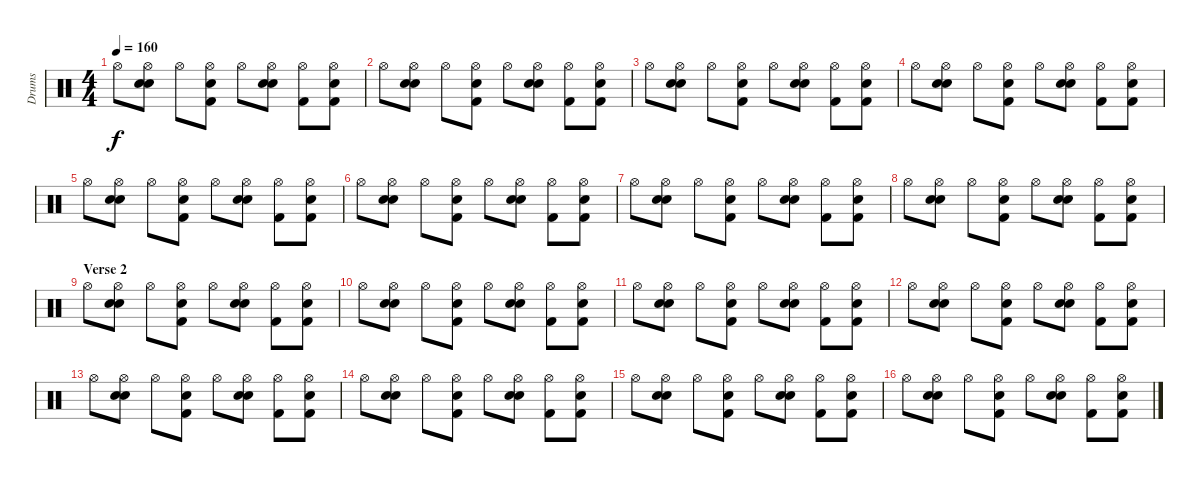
\track ("Drums" "Drums") {instrument percussion}
\staff {score}
\articulation defaults
\ts (4 4)
\tempo 160
\clef neutral
\ks c "Hi-Hat (open)".8{dy f}
("Snare (hit) 2" "Hi-Hat (open)" "Hand Clap (hit)").8 "Hi-Hat (open)".8 ("Kick (hit) 2" "Hi-Hat (open)" "Hand Clap (hit)").8 "Hi-Hat (open)".8 ("Snare (hit) 2" "Hi-Hat (open)" "Hand Clap (hit)").8 ("Kick (hit) 2" "Hi-Hat (open)").8 ("Kick (hit) 2" "Hi-Hat (open)" "Hand Clap (hit)").8 |
"Hi-Hat (open)".8 ("Snare (hit) 2" "Hi-Hat (open)" "Hand Clap (hit)").8 "Hi-Hat (open)".8 ("Kick (hit) 2" "Hi-Hat (open)" "Hand Clap (hit)").8 "Hi-Hat (open)".8 ("Snare (hit) 2" "Hi-Hat (open)" "Hand Clap (hit)").8 ("Kick (hit) 2" "Hi-Hat (open)").8 ("Kick (hit) 2" "Hi-Hat (open)" "Hand Clap (hit)").8 |
"Hi-Hat (open)".8 ("Snare (hit) 2" "Hi-Hat (open)" "Hand Clap (hit)").8 "Hi-Hat (open)".8 ("Kick (hit) 2" "Hi-Hat (open)" "Hand Clap (hit)").8 "Hi-Hat (open)".8 ("Snare (hit) 2" "Hi-Hat (open)" "Hand Clap (hit)").8 ("Kick (hit) 2" "Hi-Hat (open)").8 ("Kick (hit) 2" "Hi-Hat (open)" "Hand Clap (hit)").8 |
"Hi-Hat (open)".8 ("Snare (hit) 2" "Hi-Hat (open)" "Hand Clap (hit)").8 "Hi-Hat (open)".8 ("Kick (hit) 2" "Hi-Hat (open)" "Hand Clap (hit)").8 "Hi-Hat (open)".8 ("Snare (hit) 2" "Hi-Hat (open)" "Hand Clap (hit)").8 ("Kick (hit) 2" "Hi-Hat (open)").8 ("Kick (hit) 2" "Hi-Hat (open)" "Hand Clap (hit)").8 |
"Hi-Hat (open)".8 ("Snare (hit) 2" "Hi-Hat (open)" "Hand Clap (hit)").8 "Hi-Hat (open)".8 ("Kick (hit) 2" "Hi-Hat (open)" "Hand Clap (hit)").8 "Hi-Hat (open)".8 ("Snare (hit) 2" "Hi-Hat (open)" "Hand Clap (hit)").8 ("Kick (hit) 2" "Hi-Hat (open)").8 ("Kick (hit) 2" "Hi-Hat (open)" "Hand Clap (hit)").8 |
"Hi-Hat (open)".8 ("Snare (hit) 2" "Hi-Hat (open)" "Hand Clap (hit)").8 "Hi-Hat (open)".8 ("Kick (hit) 2" "Hi-Hat (open)" "Hand Clap (hit)").8 "Hi-Hat (open)".8 ("Snare (hit) 2" "Hi-Hat (open)" "Hand Clap (hit)").8 ("Kick (hit) 2" "Hi-Hat (open)").8 ("Kick (hit) 2" "Hi-Hat (open)" "Hand Clap (hit)").8 |
"Hi-Hat (open)".8 ("Snare (hit) 2" "Hi-Hat (open)" "Hand Clap (hit)").8 "Hi-Hat (open)".8 ("Kick (hit) 2" "Hi-Hat (open)" "Hand Clap (hit)").8 "Hi-Hat (open)".8 ("Snare (hit) 2" "Hi-Hat (open)" "Hand Clap (hit)").8 ("Kick (hit) 2" "Hi-Hat (open)").8 ("Kick (hit) 2" "Hi-Hat (open)" "Hand Clap (hit)").8 |
"Hi-Hat (open)".8 ("Snare (hit) 2" "Hi-Hat (open)" "Hand Clap (hit)").8 "Hi-Hat (open)".8 ("Kick (hit) 2" "Hi-Hat (open)" "Hand Clap (hit)").8 "Hi-Hat (open)".8 ("Snare (hit) 2" "Hi-Hat (open)" "Hand Clap (hit)").8 ("Kick (hit) 2" "Hi-Hat (open)").8 ("Kick (hit) 2" "Hi-Hat (open)" "Hand Clap (hit)").8 |
\section ("" "Verse 2")
"Hi-Hat (open)".8 ("Snare (hit) 2" "Hi-Hat (open)" "Hand Clap (hit)").8 "Hi-Hat (open)".8 ("Kick (hit) 2" "Hi-Hat (open)" "Hand Clap (hit)").8 "Hi-Hat (open)".8 ("Snare (hit) 2" "Hi-Hat (open)" "Hand Clap (hit)").8 ("Kick (hit) 2" "Hi-Hat (open)").8 ("Kick (hit) 2" "Hi-Hat (open)" "Hand Clap (hit)").8 |
"Hi-Hat (open)".8 ("Snare (hit) 2" "Hi-Hat (open)" "Hand Clap (hit)").8 "Hi-Hat (open)".8 ("Kick (hit) 2" "Hi-Hat (open)" "Hand Clap (hit)").8 "Hi-Hat (open)".8 ("Snare (hit) 2" "Hi-Hat (open)" "Hand Clap (hit)").8 ("Kick (hit) 2" "Hi-Hat (open)").8 ("Kick (hit) 2" "Hi-Hat (open)" "Hand Clap (hit)").8 |
"Hi-Hat (open)".8 ("Snare (hit) 2" "Hi-Hat (open)" "Hand Clap (hit)").8 "Hi-Hat (open)".8 ("Kick (hit) 2" "Hi-Hat (open)" "Hand Clap (hit)").8 "Hi-Hat (open)".8 ("Snare (hit) 2" "Hi-Hat (open)" "Hand Clap (hit)").8 ("Kick (hit) 2" "Hi-Hat (open)").8 ("Kick (hit) 2" "Hi-Hat (open)" "Hand Clap (hit)").8 |
"Hi-Hat (open)".8 ("Snare (hit) 2" "Hi-Hat (open)" "Hand Clap (hit)").8 "Hi-Hat (open)".8 ("Kick (hit) 2" "Hi-Hat (open)" "Hand Clap (hit)").8 "Hi-Hat (open)".8 ("Snare (hit) 2" "Hi-Hat (open)" "Hand Clap (hit)").8 ("Kick (hit) 2" "Hi-Hat (open)").8 ("Kick (hit) 2" "Hi-Hat (open)" "Hand Clap (hit)").8 |
"Hi-Hat (open)".8 ("Snare (hit) 2" "Hi-Hat (open)" "Hand Clap (hit)").8 "Hi-Hat (open)".8 ("Kick (hit) 2" "Hi-Hat (open)" "Hand Clap (hit)").8 "Hi-Hat (open)".8 ("Snare (hit) 2" "Hi-Hat (open)" "Hand Clap (hit)").8 ("Kick (hit) 2" "Hi-Hat (open)").8 ("Kick (hit) 2" "Hi-Hat (open)" "Hand Clap (hit)").8 |
"Hi-Hat (open)".8 ("Snare (hit) 2" "Hi-Hat (open)" "Hand Clap (hit)").8 "Hi-Hat (open)".8 ("Kick (hit) 2" "Hi-Hat (open)" "Hand Clap (hit)").8 "Hi-Hat (open)".8 ("Snare (hit) 2" "Hi-Hat (open)" "Hand Clap (hit)").8 ("Kick (hit) 2" "Hi-Hat (open)").8 ("Kick (hit) 2" "Hi-Hat (open)" "Hand Clap (hit)").8 |
"Hi-Hat (open)".8 ("Snare (hit) 2" "Hi-Hat (open)" "Hand Clap (hit)").8 "Hi-Hat (open)".8 ("Kick (hit) 2" "Hi-Hat (open)" "Hand Clap (hit)").8 "Hi-Hat (open)".8 ("Snare (hit) 2" "Hi-Hat (open)" "Hand Clap (hit)").8 ("Kick (hit) 2" "Hi-Hat (open)").8 ("Kick (hit) 2" "Hi-Hat (open)" "Hand Clap (hit)").8 |
"Hi-Hat (open)".8 ("Snare (hit) 2" "Hi-Hat (open)" "Hand Clap (hit)").8 "Hi-Hat (open)".8 ("Kick (hit) 2" "Hi-Hat (open)" "Hand Clap (hit)").8 "Hi-Hat (open)".8 ("Snare (hit) 2" "Hi-Hat (open)" "Hand Clap (hit)").8 ("Kick (hit) 2" "Hi-Hat (open)").8 ("Kick (hit) 2" "Hi-Hat (open)" "Hand Clap (hit)").8
